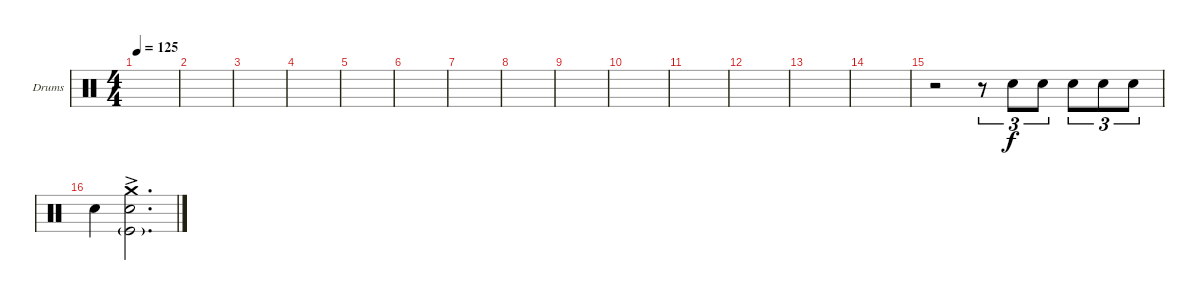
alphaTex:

\defaultSystemsLayout 4
\bracketExtendMode groupsimilarinstruments
\firstSystemTrackNameOrientation horizontal
\otherSystemsTrackNameOrientation horizontal
\track ("Drumkit" "Drums") {instrument percussion}
\staff {score}
\articulation defaults
\ts (4 4)
\tempo 125
\clef neutral
\scale
0.333333
\ks c
|
\scale
0.333333 |
\scale
0.333333 |
\scale
0.333333 |
\scale
0.333333 |
\scale
0.333333 |
\scale
0.333333 |
\scale
0.333333 |
\scale
0.333333 |
\scale
0.333333 |
\scale
0.333333 |
\scale
0.333333 |
\scale
0.333333 |
\scale
0.333333 |
\scale
0.333333 r.2 r.8{tu (3 2)} "Snare (hit) 2".8{tu (3 2)} "Snare (hit) 2".8{tu (3 2)} "Snare (hit) 2".8{tu (3 2)} "Snare (hit) 2".8{tu (3 2)} "Snare (hit) 2".8{tu (3 2)} |
\scale
0.333333 "Snare (hit) 2".4 ("Snare (hit) 2" "Kick (hit)"{g} "Crash medium (hit)"{ac}).2{d}
